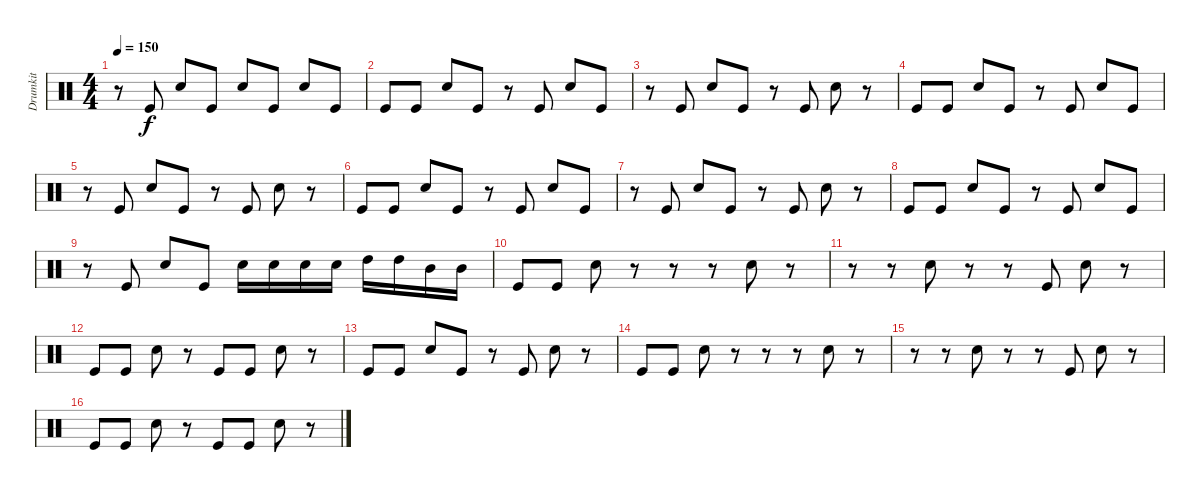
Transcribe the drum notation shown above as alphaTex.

\track ("Drumkit" "Drumkit") {instrument percussion}
\staff {score}
\articulation defaults
\ts (4 4)
\tempo 150
\clef neutral
\ks c
r.8{dy f} "Kick (hit)".8 "Snare (hit) 2".8 "Kick (hit)".8 "Snare (hit) 2".8 "Kick (hit)".8 "Snare (hit) 2".8 "Kick (hit)".8 |
"Kick (hit)".8 "Kick (hit)".8 "Snare (hit) 2".8 "Kick (hit)".8 r.8 "Kick (hit)".8 "Snare (hit) 2".8 "Kick (hit)".8 |
r.8 "Kick (hit)".8 "Snare (hit) 2".8 "Kick (hit)".8 r.8 "Kick (hit)".8 "Snare (hit) 2".8 r.8 |
"Kick (hit)".8 "Kick (hit)".8 "Snare (hit) 2".8 "Kick (hit)".8 r.8 "Kick (hit)".8 "Snare (hit) 2".8 "Kick (hit)".8 |
r.8 "Kick (hit)".8 "Snare (hit) 2".8 "Kick (hit)".8 r.8 "Kick (hit)".8 "Snare (hit) 2".8 r.8 |
"Kick (hit)".8 "Kick (hit)".8 "Snare (hit) 2".8 "Kick (hit)".8 r.8 "Kick (hit)".8 "Snare (hit) 2".8 "Kick (hit)".8 |
r.8 "Kick (hit)".8 "Snare (hit) 2".8 "Kick (hit)".8 r.8 "Kick (hit)".8 "Snare (hit) 2".8 r.8 |
"Kick (hit)".8 "Kick (hit)".8 "Snare (hit) 2".8 "Kick (hit)".8 r.8 "Kick (hit)".8 "Snare (hit) 2".8 "Kick (hit)".8 |
r.8 "Kick (hit)".8 "Snare (hit) 2".8 "Kick (hit)".8 "Snare (hit) 2".16 "Snare (hit) 2".16 "Snare (hit) 2".16 "Snare (hit) 2".16 "High Tom (hit)".16 "High Tom (hit)".16 "Mid Tom (hit)".16 "Mid Tom (hit)".16 |
"Kick (hit)".8 "Kick (hit)".8 "Snare (hit) 2".8 r.8 r.8 r.8 "Snare (hit) 2".8 r.8 |
r.8 r.8 "Snare (hit) 2".8 r.8 r.8 "Kick (hit)".8 "Snare (hit) 2".8 r.8 |
"Kick (hit)".8 "Kick (hit)".8 "Snare (hit) 2".8 r.8 "Kick (hit)".8 "Kick (hit)".8 "Snare (hit) 2".8 r.8 |
"Kick (hit)".8 "Kick (hit)".8 "Snare (hit) 2".8 "Kick (hit)".8 r.8 "Kick (hit)".8 "Snare (hit) 2".8 r.8 |
"Kick (hit)".8 "Kick (hit)".8 "Snare (hit) 2".8 r.8 r.8 r.8 "Snare (hit) 2".8 r.8 |
r.8 r.8 "Snare (hit) 2".8 r.8 r.8 "Kick (hit)".8 "Snare (hit) 2".8 r.8 |
"Kick (hit)".8 "Kick (hit)".8 "Snare (hit) 2".8 r.8 "Kick (hit)".8 "Kick (hit)".8 "Snare (hit) 2".8 r.8
